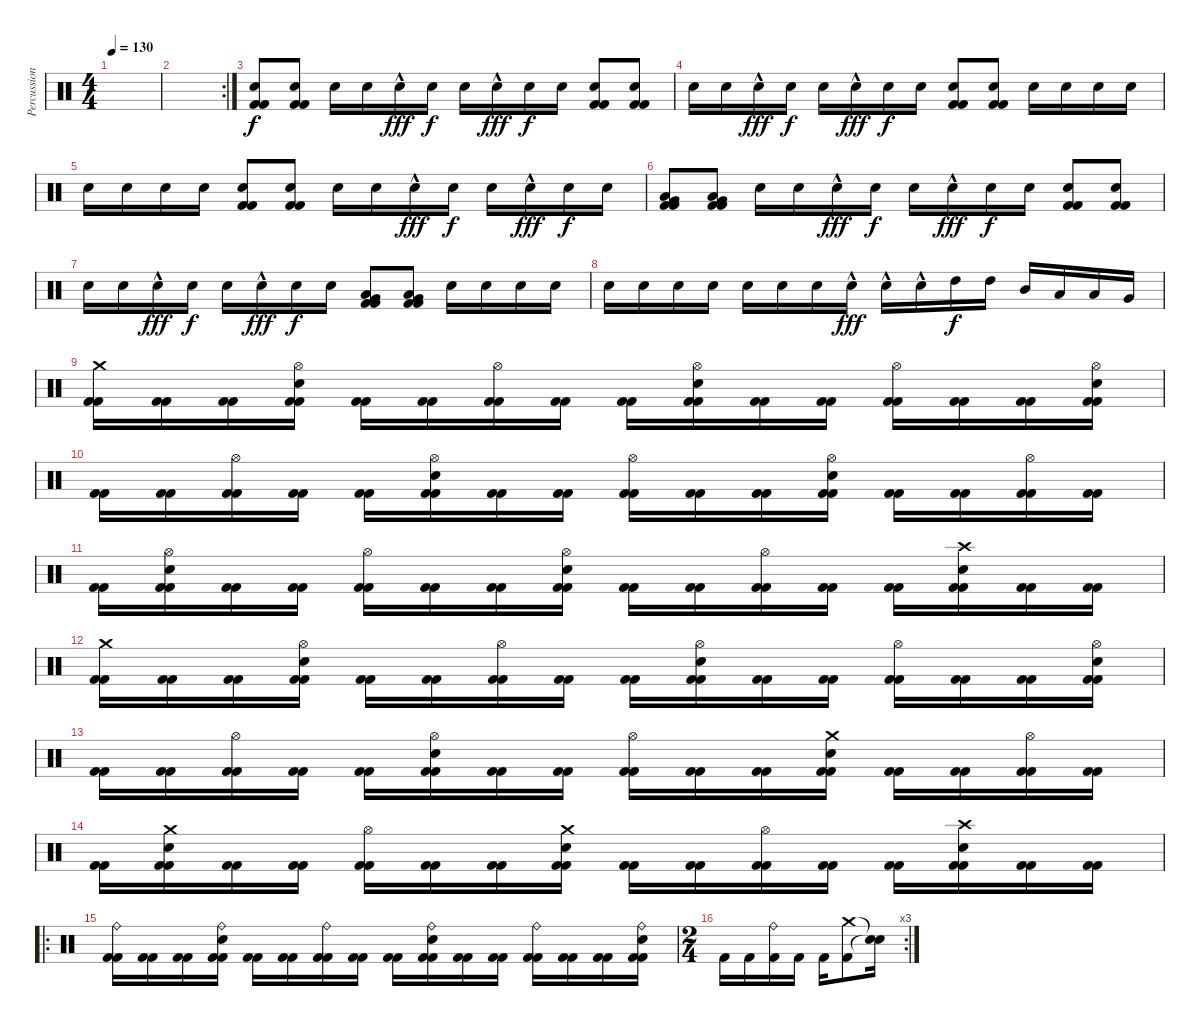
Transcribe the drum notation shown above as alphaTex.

\track ("Percussion" "Percussion") {instrument percussion}
\staff {score}
\articulation defaults
\ts (4 4)
\tempo 130
\clef neutral
\ks c
|
\rc 2
|
("Electric Snare (hit)" "Kick (hit) 2" "Kick (hit) 2").8 ("Electric Snare (hit)" "Kick (hit) 2" "Kick (hit) 2").8 "Electric Snare (hit)".16 "Electric Snare (hit)".16 "Electric Snare (hit)"{hac}.16{dy fff} "Electric Snare (hit)".16{dy f} "Electric Snare (hit)".16 "Electric Snare (hit)"{hac}.16{dy fff} "Electric Snare (hit)".16{dy f} "Electric Snare (hit)".16 ("Electric Snare (hit)" "Kick (hit) 2" "Kick (hit) 2").8 ("Electric Snare (hit)" "Kick (hit) 2" "Kick (hit) 2").8 |
"Electric Snare (hit)".16 "Electric Snare (hit)".16 "Electric Snare (hit)"{hac}.16{dy fff} "Electric Snare (hit)".16{dy f} "Electric Snare (hit)".16 "Electric Snare (hit)"{hac}.16{dy fff} "Electric Snare (hit)".16{dy f} "Electric Snare (hit)".16 ("Electric Snare (hit)" "Kick (hit) 2" "Kick (hit) 2").8 ("Electric Snare (hit)" "Kick (hit) 2" "Kick (hit) 2").8 "Electric Snare (hit)".16 "Electric Snare (hit)".16 "Electric Snare (hit)".16 "Electric Snare (hit)".16 |
"Electric Snare (hit)".16 "Electric Snare (hit)".16 "Electric Snare (hit)".16 "Electric Snare (hit)".16 ("Electric Snare (hit)" "Kick (hit) 2" "Kick (hit) 2").8 ("Electric Snare (hit)" "Kick (hit) 2" "Kick (hit) 2").8 "Electric Snare (hit)".16 "Electric Snare (hit)".16 "Electric Snare (hit)"{hac}.16{dy fff} "Electric Snare (hit)".16{dy f} "Electric Snare (hit)".16 "Electric Snare (hit)"{hac}.16{dy fff} "Electric Snare (hit)".16{dy f} "Electric Snare (hit)".16 |
("Low Floor Tom (hit)" "Very Low Tom (hit)" "Kick (hit) 2" "Kick (hit) 2").8 ("Low Floor Tom (hit)" "Very Low Tom (hit)" "Kick (hit) 2" "Kick (hit) 2").8 "Electric Snare (hit)".16 "Electric Snare (hit)".16 "Electric Snare (hit)"{hac}.16{dy fff} "Electric Snare (hit)".16{dy f} "Electric Snare (hit)".16 "Electric Snare (hit)"{hac}.16{dy fff} "Electric Snare (hit)".16{dy f} "Electric Snare (hit)".16 ("Electric Snare (hit)" "Kick (hit) 2" "Kick (hit) 2").8 ("Electric Snare (hit)" "Kick (hit) 2" "Kick (hit) 2").8 |
"Electric Snare (hit)".16 "Electric Snare (hit)".16 "Electric Snare (hit)"{hac}.16{dy fff} "Electric Snare (hit)".16{dy f} "Electric Snare (hit)".16 "Electric Snare (hit)"{hac}.16{dy fff} "Electric Snare (hit)".16{dy f} "Electric Snare (hit)".16 ("Low Floor Tom (hit)" "Very Low Tom (hit)" "Kick (hit) 2" "Kick (hit) 2").8 ("Low Floor Tom (hit)" "Very Low Tom (hit)" "Kick (hit) 2" "Kick (hit) 2").8 "Electric Snare (hit)".16 "Electric Snare (hit)".16 "Electric Snare (hit)".16 "Electric Snare (hit)".16 |
"Electric Snare (hit)".16 "Electric Snare (hit)".16 "Electric Snare (hit)".16 "Electric Snare (hit)".16 "Electric Snare (hit)".16 "Electric Snare (hit)".16 "Electric Snare (hit)".16 "Electric Snare (hit)"{hac}.16{dy fff} "Electric Snare (hit)"{hac}.16 "Electric Snare (hit)"{hac}.16 "High Tom (hit)".16{dy f} "High Tom (hit)".16 "Mid Tom (hit)".16 "Low Tom (hit)".16 "Low Tom (hit)".16 "Very Low Tom (hit)".16 |
("Crash medium (hit)" "Kick (hit) 2" "Kick (hit) 2").16 ("Kick (hit) 2" "Kick (hit) 2").16 ("Kick (hit) 2" "Kick (hit) 2").16 ("Hi-Hat (open)" "Electric Snare (hit)" "Kick (hit) 2" "Kick (hit) 2").16 ("Kick (hit) 2" "Kick (hit) 2").16 ("Kick (hit) 2" "Kick (hit) 2").16 ("Hi-Hat (open)" "Kick (hit) 2" "Kick (hit) 2").16 ("Kick (hit) 2" "Kick (hit) 2").16 ("Kick (hit) 2" "Kick (hit) 2").16 ("Hi-Hat (open)" "Electric Snare (hit)" "Kick (hit) 2" "Kick (hit) 2").16 ("Kick (hit) 2" "Kick (hit) 2").16 ("Kick (hit) 2" "Kick (hit) 2").16 ("Hi-Hat (open)" "Kick (hit) 2" "Kick (hit) 2").16 ("Kick (hit) 2" "Kick (hit) 2").16 ("Kick (hit) 2" "Kick (hit) 2").16 ("Hi-Hat (open)" "Electric Snare (hit)" "Kick (hit) 2" "Kick (hit) 2").16 |
("Kick (hit) 2" "Kick (hit) 2").16 ("Kick (hit) 2" "Kick (hit) 2").16 ("Hi-Hat (open)" "Kick (hit) 2" "Kick (hit) 2").16 ("Kick (hit) 2" "Kick (hit) 2").16 ("Kick (hit) 2" "Kick (hit) 2").16 ("Hi-Hat (open)" "Electric Snare (hit)" "Kick (hit) 2" "Kick (hit) 2").16 ("Kick (hit) 2" "Kick (hit) 2").16 ("Kick (hit) 2" "Kick (hit) 2").16 ("Hi-Hat (open)" "Kick (hit) 2" "Kick (hit) 2").16 ("Kick (hit) 2" "Kick (hit) 2").16 ("Kick (hit) 2" "Kick (hit) 2").16 ("Hi-Hat (open)" "Electric Snare (hit)" "Kick (hit) 2" "Kick (hit) 2").16 ("Kick (hit) 2" "Kick (hit) 2").16 ("Kick (hit) 2" "Kick (hit) 2").16 ("Hi-Hat (open)" "Kick (hit) 2" "Kick (hit) 2").16 ("Kick (hit) 2" "Kick (hit) 2").16 |
("Kick (hit) 2" "Kick (hit) 2").16 ("Hi-Hat (open)" "Electric Snare (hit)" "Kick (hit) 2" "Kick (hit) 2").16 ("Kick (hit) 2" "Kick (hit) 2").16 ("Kick (hit) 2" "Kick (hit) 2").16 ("Hi-Hat (open)" "Kick (hit) 2" "Kick (hit) 2").16 ("Kick (hit) 2" "Kick (hit) 2").16 ("Kick (hit) 2" "Kick (hit) 2").16 ("Hi-Hat (open)" "Electric Snare (hit)" "Kick (hit) 2" "Kick (hit) 2").16 ("Kick (hit) 2" "Kick (hit) 2").16 ("Kick (hit) 2" "Kick (hit) 2").16 ("Hi-Hat (open)" "Kick (hit) 2" "Kick (hit) 2").16 ("Kick (hit) 2" "Kick (hit) 2").16 ("Kick (hit) 2" "Kick (hit) 2").16 ("Crash high (hit)" "Electric Snare (hit)" "Kick (hit) 2" "Kick (hit) 2").16 ("Kick (hit) 2" "Kick (hit) 2").16 ("Kick (hit) 2" "Kick (hit) 2").16 |
("Crash medium (hit)" "Kick (hit) 2" "Kick (hit) 2").16 ("Kick (hit) 2" "Kick (hit) 2").16 ("Kick (hit) 2" "Kick (hit) 2").16 ("Hi-Hat (open)" "Electric Snare (hit)" "Kick (hit) 2" "Kick (hit) 2").16 ("Kick (hit) 2" "Kick (hit) 2").16 ("Kick (hit) 2" "Kick (hit) 2").16 ("Hi-Hat (open)" "Kick (hit) 2" "Kick (hit) 2").16 ("Kick (hit) 2" "Kick (hit) 2").16 ("Kick (hit) 2" "Kick (hit) 2").16 ("Hi-Hat (open)" "Electric Snare (hit)" "Kick (hit) 2" "Kick (hit) 2").16 ("Kick (hit) 2" "Kick (hit) 2").16 ("Kick (hit) 2" "Kick (hit) 2").16 ("Hi-Hat (open)" "Kick (hit) 2" "Kick (hit) 2").16 ("Kick (hit) 2" "Kick (hit) 2").16 ("Kick (hit) 2" "Kick (hit) 2").16 ("Hi-Hat (open)" "Electric Snare (hit)" "Kick (hit) 2" "Kick (hit) 2").16 |
("Kick (hit) 2" "Kick (hit) 2").16 ("Kick (hit) 2" "Kick (hit) 2").16 ("Hi-Hat (open)" "Kick (hit) 2" "Kick (hit) 2").16 ("Kick (hit) 2" "Kick (hit) 2").16 ("Kick (hit) 2" "Kick (hit) 2").16 ("Hi-Hat (open)" "Electric Snare (hit)" "Kick (hit) 2" "Kick (hit) 2").16 ("Kick (hit) 2" "Kick (hit) 2").16 ("Kick (hit) 2" "Kick (hit) 2").16 ("Hi-Hat (open)" "Kick (hit) 2" "Kick (hit) 2").16 ("Kick (hit) 2" "Kick (hit) 2").16 ("Kick (hit) 2" "Kick (hit) 2").16 ("Crash medium (hit)" "Electric Snare (hit)" "Kick (hit) 2" "Kick (hit) 2").16 ("Kick (hit) 2" "Kick (hit) 2").16 ("Kick (hit) 2" "Kick (hit) 2").16 ("Hi-Hat (open)" "Kick (hit) 2" "Kick (hit) 2").16 ("Kick (hit) 2" "Kick (hit) 2").16 |
("Kick (hit) 2" "Kick (hit) 2").16 ("Crash medium (hit)" "Electric Snare (hit)" "Kick (hit) 2" "Kick (hit) 2").16 ("Kick (hit) 2" "Kick (hit) 2").16 ("Kick (hit) 2" "Kick (hit) 2").16 ("Hi-Hat (open)" "Kick (hit) 2" "Kick (hit) 2").16 ("Kick (hit) 2" "Kick (hit) 2").16 ("Kick (hit) 2" "Kick (hit) 2").16 ("Crash medium (hit)" "Electric Snare (hit)" "Kick (hit) 2" "Kick (hit) 2").16 ("Kick (hit) 2" "Kick (hit) 2").16 ("Kick (hit) 2" "Kick (hit) 2").16 ("Hi-Hat (open)" "Kick (hit) 2" "Kick (hit) 2").16 ("Kick (hit) 2" "Kick (hit) 2").16 ("Kick (hit) 2" "Kick (hit) 2").16 ("Crash high (hit)" "Electric Snare (hit)" "Kick (hit) 2" "Kick (hit) 2").16 ("Kick (hit) 2" "Kick (hit) 2").16 ("Kick (hit) 2" "Kick (hit) 2").16 |
\ro
("Ride (bell)" "Kick (hit) 2" "Kick (hit) 2").16 ("Kick (hit) 2" "Kick (hit) 2").16 ("Kick (hit) 2" "Kick (hit) 2").16 ("Ride (bell)" "Electric Snare (hit)" "Kick (hit) 2" "Kick (hit) 2").16 ("Kick (hit) 2" "Kick (hit) 2").16 ("Kick (hit) 2" "Kick (hit) 2").16 ("Ride (bell)" "Kick (hit) 2" "Kick (hit) 2").16 ("Kick (hit) 2" "Kick (hit) 2").16 ("Kick (hit) 2" "Kick (hit) 2").16 ("Ride (bell)" "Electric Snare (hit)" "Kick (hit) 2" "Kick (hit) 2").16 ("Kick (hit) 2" "Kick (hit) 2").16 ("Kick (hit) 2" "Kick (hit) 2").16 ("Ride (bell)" "Kick (hit) 2" "Kick (hit) 2").16 ("Kick (hit) 2" "Kick (hit) 2").16 ("Kick (hit) 2" "Kick (hit) 2").16 ("Ride (bell)" "Electric Snare (hit)" "Kick (hit) 2" "Kick (hit) 2").16 |
\rc 3
\ts (2 4)
"Kick (hit) 2".16 "Kick (hit) 2".16 ("Ride (bell)" "Kick (hit) 2").16 "Kick (hit) 2".16 "Kick (hit) 2".16 ("Crash medium (hit)" "Kick (hit) 2").8 ("Snare (hit)"{t} "Snare (hit)"{t}).16
